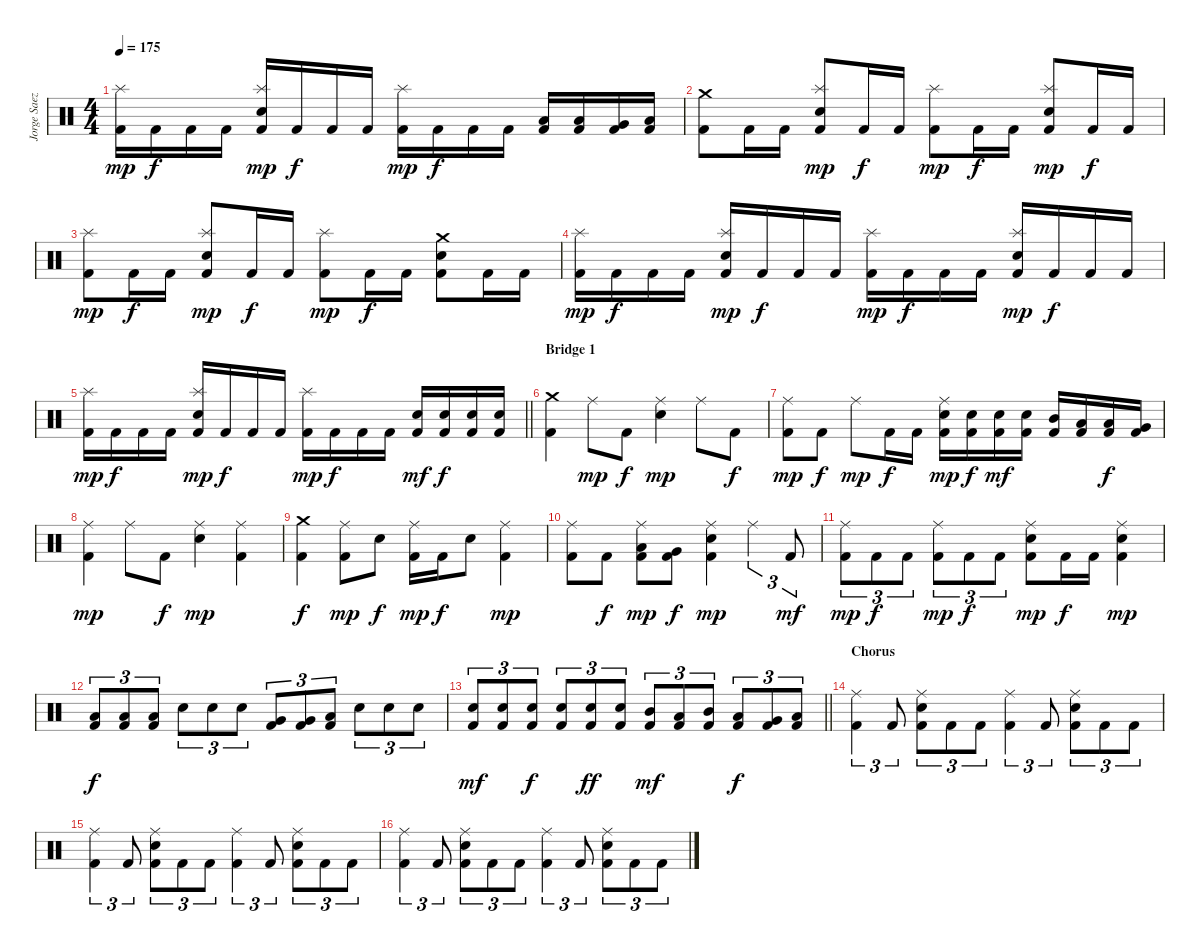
\track ("Jorge Saez, Drums" "Jorge Saez") {instrument percussion}
\staff
\articulation defaults
\ts (4 4)
\tempo 175
\clef neutral
\ks c
("Kick (hit) 2" "Splash (hit)").16{dy mp} "Kick (hit) 2".16{dy f} "Kick (hit) 2".16 "Kick (hit) 2".16 ("Kick (hit) 2" "Electric Snare (hit)" "Splash (hit)").16{dy mp} "Kick (hit) 2".16{dy f} "Kick (hit) 2".16 "Kick (hit) 2".16 ("Kick (hit) 2" "Splash (hit)").16{dy mp} "Kick (hit) 2".16{dy f} "Kick (hit) 2".16 "Kick (hit) 2".16 ("Kick (hit) 2" "Low Tom (hit)").16 ("Kick (hit) 2" "Low Tom (hit)").16 ("Kick (hit) 2" "Very Low Tom (hit)").16 ("Kick (hit) 2" "Low Floor Tom (hit)").16 |
("Kick (hit) 2" "Crash medium (hit)").8 "Kick (hit) 2".16 "Kick (hit) 2".16 ("Kick (hit) 2" "Electric Snare (hit)" "Splash (hit)").8{dy mp} "Kick (hit) 2".16{dy f} "Kick (hit) 2".16 ("Kick (hit) 2" "Splash (hit)").8{dy mp} "Kick (hit) 2".16{dy f} "Kick (hit) 2".16 ("Kick (hit) 2" "Electric Snare (hit)" "Splash (hit)").8{dy mp} "Kick (hit) 2".16{dy f} "Kick (hit) 2".16 |
("Kick (hit) 2" "Splash (hit)").8{dy mp} "Kick (hit) 2".16{dy f} "Kick (hit) 2".16 ("Kick (hit) 2" "Electric Snare (hit)" "Splash (hit)").8{dy mp} "Kick (hit) 2".16{dy f} "Kick (hit) 2".16 ("Kick (hit) 2" "Splash (hit)").8{dy mp} "Kick (hit) 2".16{dy f} "Kick (hit) 2".16 ("Kick (hit) 2" "Electric Snare (hit)" "Crash medium (hit)").8 "Kick (hit) 2".16 "Kick (hit) 2".16 |
("Kick (hit) 2" "Splash (hit)").16{dy mp} "Kick (hit) 2".16{dy f} "Kick (hit) 2".16 "Kick (hit) 2".16 ("Kick (hit) 2" "Electric Snare (hit)" "Splash (hit)").16{dy mp} "Kick (hit) 2".16{dy f} "Kick (hit) 2".16 "Kick (hit) 2".16 ("Kick (hit) 2" "Splash (hit)").16{dy mp} "Kick (hit) 2".16{dy f} "Kick (hit) 2".16 "Kick (hit) 2".16 ("Kick (hit) 2" "Electric Snare (hit)" "Splash (hit)").16{dy mp} "Kick (hit) 2".16{dy f} "Kick (hit) 2".16 "Kick (hit) 2".16 |
\barLineRight lightlight
("Kick (hit) 2" "Splash (hit)").16{dy mp} "Kick (hit) 2".16{dy f} "Kick (hit) 2".16 "Kick (hit) 2".16 ("Kick (hit) 2" "Electric Snare (hit)" "Splash (hit)").16{dy mp} "Kick (hit) 2".16{dy f} "Kick (hit) 2".16 "Kick (hit) 2".16 ("Kick (hit) 2" "Splash (hit)").16{dy mp} "Kick (hit) 2".16{dy f} "Kick (hit) 2".16 "Kick (hit) 2".16 ("Kick (hit) 2" "Electric Snare (hit)").16{dy mf} ("Kick (hit) 2" "Electric Snare (hit)").16{dy f} ("Kick (hit) 2" "Electric Snare (hit)").16 ("Kick (hit) 2" "Electric Snare (hit)").16 |
\section ("" "Bridge 1")
("Kick (hit) 2" "Crash medium (hit)").4 "Ride (middle)".8{dy mp} "Kick (hit) 2".8{dy f} ("Electric Snare (hit)" "Ride (middle)").4{dy mp} "Ride (middle)".8 "Kick (hit) 2".8{dy f} |
("Kick (hit) 2" "Ride (middle)").8{dy mp} "Kick (hit) 2".8{dy f} "Ride (middle)".8{dy mp} "Kick (hit) 2".16{dy f} "Kick (hit) 2".16 ("Kick (hit) 2" "Electric Snare (hit)" "Ride (middle)").16{dy mp} ("Kick (hit) 2" "Electric Snare (hit)").16{dy f} ("Kick (hit) 2" "Electric Snare (hit)").16{dy mf} ("Kick (hit) 2" "Electric Snare (hit)").16 ("Kick (hit) 2" "Mid Tom (hit)").16 ("Kick (hit) 2" "Low Tom (hit)").16 ("Kick (hit) 2" "Low Tom (hit)").16{dy f} ("Kick (hit) 2" "Very Low Tom (hit)").16 |
("Kick (hit) 2" "Ride (middle)").4{dy mp} "Ride (middle)".8 "Kick (hit) 2".8{dy f} ("Electric Snare (hit)" "Ride (middle)").4{dy mp} ("Kick (hit) 2" "Ride (middle)").4 |
("Kick (hit) 2" "Crash medium (hit)").4{dy f} ("Kick (hit) 2" "Ride (middle)").8{dy mp} "Electric Snare (hit)".8{dy f} ("Kick (hit) 2" "Ride (middle)").16{dy mp} "Kick (hit) 2".16{dy f} "Electric Snare (hit)".8 ("Kick (hit) 2" "Ride (middle)").4{dy mp} |
("Kick (hit) 2" "Ride (middle)").8 "Kick (hit) 2".8{dy f} ("Kick (hit) 2" "Low Tom (hit)" "Ride (middle)").8{dy mp} ("Kick (hit) 2" "Very Low Tom (hit)").8{dy f} ("Kick (hit) 2" "Electric Snare (hit)" "Ride (middle)").4{dy mp} "Ride (middle)".4{tu (3 2)} "Kick (hit) 2".8{tu (3 2) dy mf} |
("Kick (hit) 2" "Ride (middle)").8{tu (3 2) dy mp} "Kick (hit) 2".8{tu (3 2) dy f} "Kick (hit) 2".8{tu (3 2)} ("Kick (hit) 2" "Ride (middle)").8{tu (3 2) dy mp} "Kick (hit) 2".8{tu (3 2) dy f} "Kick (hit) 2".8{tu (3 2)} ("Kick (hit) 2" "Electric Snare (hit)" "Ride (middle)").8{dy mp} "Kick (hit) 2".16{dy f} "Kick (hit) 2".16 ("Kick (hit) 2" "Electric Snare (hit)" "Ride (middle)").4{dy mp} |
("Kick (hit) 2" "Low Tom (hit)").8{tu (3 2) dy f} ("Kick (hit) 2" "Low Tom (hit)").8{tu (3 2)} ("Kick (hit) 2" "Low Tom (hit)").8{tu (3 2)} "Electric Snare (hit)".8{tu (3 2)} "Electric Snare (hit)".8{tu (3 2)} "Electric Snare (hit)".8{tu (3 2)} ("Kick (hit) 2" "Very Low Tom (hit)").8{tu (3 2)} ("Kick (hit) 2" "Very Low Tom (hit)").8{tu (3 2)} ("Kick (hit) 2" "Low Tom (hit)").8{tu (3 2)} "Electric Snare (hit)".8{tu (3 2)} "Electric Snare (hit)".8{tu (3 2)} "Electric Snare (hit)".8{tu (3 2)} |
\barLineRight lightlight
("Kick (hit) 2" "Electric Snare (hit)").8{tu (3 2) dy mf} ("Kick (hit) 2" "Electric Snare (hit)").8{tu (3 2)} ("Kick (hit) 2" "Electric Snare (hit)").8{tu (3 2) dy f} ("Kick (hit) 2" "Electric Snare (hit)").8{tu (3 2)} ("Kick (hit) 2" "Electric Snare (hit)").8{tu (3 2) dy ff} ("Kick (hit) 2" "Electric Snare (hit)").8{tu (3 2)} ("Kick (hit) 2" "Mid Tom (hit)").8{tu (3 2) dy mf} ("Kick (hit) 2" "Low Tom (hit)").8{tu (3 2)} ("Kick (hit) 2" "Mid Tom (hit)").8{tu (3 2)} ("Kick (hit) 2" "Low Tom (hit)").8{tu (3 2) dy f} ("Kick (hit) 2" "Very Low Tom (hit)").8{tu (3 2)} ("Kick (hit) 2" "Low Floor Tom (hit)").8{tu (3 2)} |
\section ("" "Chorus")
("Kick (hit) 2" "Ride (middle)").4{tu (3 2)} "Kick (hit) 2".8{tu (3 2)} ("Kick (hit) 2" "Electric Snare (hit)" "Ride (middle)").8{tu (3 2)} "Kick (hit) 2".8{tu (3 2)} "Kick (hit) 2".8{tu (3 2)} ("Kick (hit) 2" "Ride (middle)").4{tu (3 2)} "Kick (hit) 2".8{tu (3 2)} ("Kick (hit) 2" "Electric Snare (hit)" "Ride (middle)").8{tu (3 2)} "Kick (hit) 2".8{tu (3 2)} "Kick (hit) 2".8{tu (3 2)} |
("Kick (hit) 2" "Ride (middle)").4{tu (3 2)} "Kick (hit) 2".8{tu (3 2)} ("Kick (hit) 2" "Electric Snare (hit)" "Ride (middle)").8{tu (3 2)} "Kick (hit) 2".8{tu (3 2)} "Kick (hit) 2".8{tu (3 2)} ("Kick (hit) 2" "Ride (middle)").4{tu (3 2)} "Kick (hit) 2".8{tu (3 2)} ("Kick (hit) 2" "Electric Snare (hit)" "Ride (middle)").8{tu (3 2)} "Kick (hit) 2".8{tu (3 2)} "Kick (hit) 2".8{tu (3 2)} |
("Kick (hit) 2" "Ride (middle)").4{tu (3 2)} "Kick (hit) 2".8{tu (3 2)} ("Kick (hit) 2" "Electric Snare (hit)" "Ride (middle)").8{tu (3 2)} "Kick (hit) 2".8{tu (3 2)} "Kick (hit) 2".8{tu (3 2)} ("Kick (hit) 2" "Ride (middle)").4{tu (3 2)} "Kick (hit) 2".8{tu (3 2)} ("Kick (hit) 2" "Electric Snare (hit)" "Ride (middle)").8{tu (3 2)} "Kick (hit) 2".8{tu (3 2)} "Kick (hit) 2".8{tu (3 2)}
